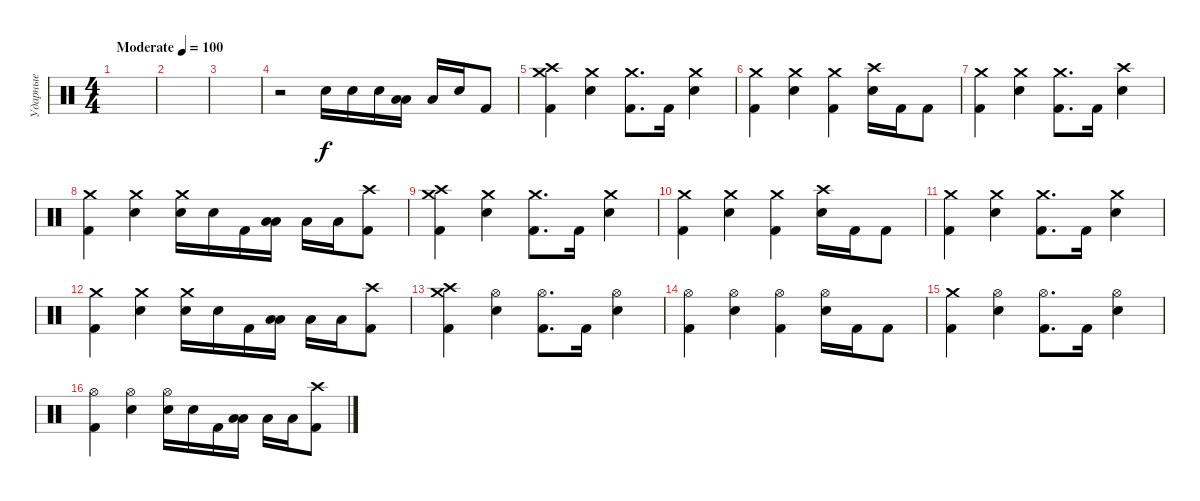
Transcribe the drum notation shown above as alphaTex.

\track ("Ударные" "Ударные") {instrument percussion}
\staff {score}
\articulation defaults
\ts (4 4)
\tempo (100 "Moderate")
\clef neutral
\ks c
|
|
|
r.2 "Electric Snare (hit)".16 "Electric Snare (hit)".16 "Electric Snare (hit)".16 ("Low Tom (hit)" "Low Floor Tom (hit)").16{bu 480} "Low Floor Tom (hit)".16 "Electric Snare (hit)".16 "Kick (hit) 2".8 |
("Crash medium (hit)" "Crash high (hit)" "Kick (hit) 2").4 ("Crash medium (hit)" "Snare (hit) 2").4 ("Crash medium (hit)" "Kick (hit) 2").8{d} "Kick (hit) 2".16 ("Crash medium (hit)" "Snare (hit) 2").4 |
("Crash medium (hit)" "Kick (hit) 2").4 ("Crash medium (hit)" "Snare (hit) 2").4 ("Crash medium (hit)" "Kick (hit) 2").4 ("Crash high (hit)" "Snare (hit) 2").16 "Kick (hit) 2".16 "Kick (hit) 2".8 |
("Crash medium (hit)" "Kick (hit) 2").4 ("Crash medium (hit)" "Snare (hit) 2").4 ("Crash medium (hit)" "Kick (hit) 2").8{d} "Kick (hit) 2".16 ("Crash high (hit)" "Snare (hit) 2").4 |
("Crash medium (hit)" "Kick (hit) 2").4 ("Crash medium (hit)" "Snare (hit) 2").4 ("Crash medium (hit)" "Electric Snare (hit)").16 "Electric Snare (hit)".16 "Kick (hit) 2".16 ("Low Tom (hit)" "Low Floor Tom (hit)").16 "Low Floor Tom (hit)".16 "Low Floor Tom (hit)".16 ("Crash high (hit)" "Kick (hit) 2").8 |
("Crash medium (hit)" "Crash high (hit)" "Kick (hit) 2").4 ("Crash medium (hit)" "Snare (hit) 2").4 ("Crash medium (hit)" "Kick (hit) 2").8{d} "Kick (hit) 2".16 ("Crash medium (hit)" "Snare (hit) 2").4 |
("Crash medium (hit)" "Kick (hit) 2").4 ("Crash medium (hit)" "Snare (hit) 2").4 ("Crash medium (hit)" "Kick (hit) 2").4 ("Crash high (hit)" "Snare (hit) 2").16 "Kick (hit) 2".16 "Kick (hit) 2".8 |
("Crash medium (hit)" "Kick (hit) 2").4 ("Crash medium (hit)" "Snare (hit) 2").4 ("Crash medium (hit)" "Kick (hit) 2").8{d} "Kick (hit) 2".16 ("Crash medium (hit)" "Snare (hit) 2").4 |
("Crash medium (hit)" "Kick (hit) 2").4 ("Crash medium (hit)" "Snare (hit) 2").4 ("Crash medium (hit)" "Electric Snare (hit)").16 "Electric Snare (hit)".16 "Kick (hit) 2".16 ("Low Tom (hit)" "Low Floor Tom (hit)").16 "Low Floor Tom (hit)".16 "Low Floor Tom (hit)".16 ("Crash high (hit)" "Kick (hit) 2").8 |
("Crash medium (hit)" "Crash high (hit)" "Kick (hit) 2").4 ("Hi-Hat (open)" "Snare (hit) 2").4 ("Hi-Hat (open)" "Kick (hit) 2").8{d} "Kick (hit) 2".16 ("Hi-Hat (open)" "Snare (hit) 2").4 |
("Hi-Hat (open)" "Kick (hit) 2").4 ("Hi-Hat (open)" "Snare (hit) 2").4 ("Hi-Hat (open)" "Kick (hit) 2").4 ("Hi-Hat (open)" "Snare (hit) 2").16 "Kick (hit) 2".16 "Kick (hit) 2".8 |
("Crash medium (hit)" "Kick (hit) 2").4 ("Hi-Hat (open)" "Snare (hit) 2").4 ("Hi-Hat (open)" "Kick (hit) 2").8{d} "Kick (hit) 2".16 ("Hi-Hat (open)" "Snare (hit) 2").4 |
("Hi-Hat (open)" "Kick (hit) 2").4 ("Hi-Hat (open)" "Snare (hit) 2").4 ("Hi-Hat (open)" "Electric Snare (hit)").16 "Electric Snare (hit)".16 "Kick (hit) 2".16 ("Low Tom (hit)" "Low Floor Tom (hit)").16 "Low Floor Tom (hit)".16 "Low Floor Tom (hit)".16 ("Crash high (hit)" "Kick (hit) 2").8
